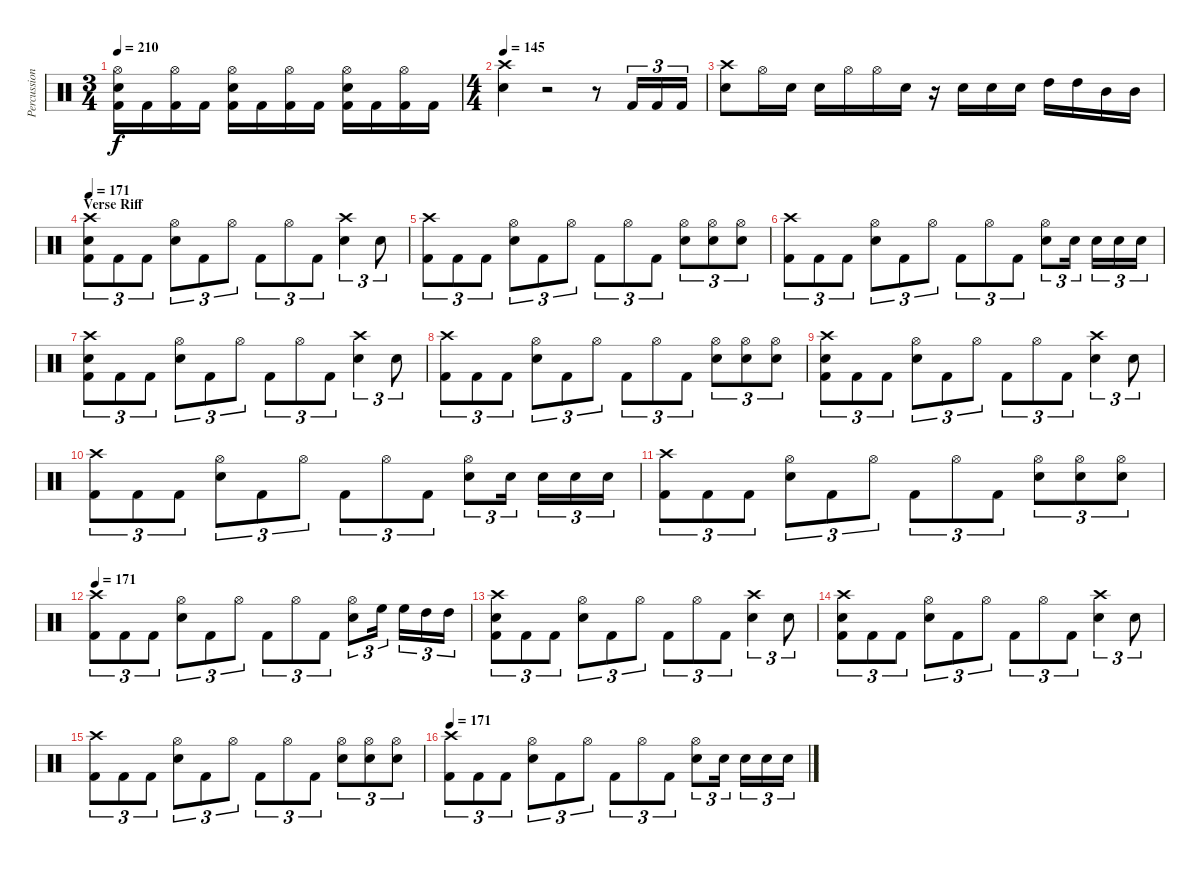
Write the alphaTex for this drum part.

\track ("Percussion" "Percussion") {instrument percussion}
\staff {score}
\articulation defaults
\ts (3 4)
\tempo 210
\clef neutral
\ks c
("Hi-Hat (open)" "Electric Snare (hit)" "Kick (hit) 2").16{dy f} "Kick (hit) 2".16 ("Hi-Hat (open)" "Kick (hit) 2").16 "Kick (hit) 2".16 ("Hi-Hat (open)" "Electric Snare (hit)" "Kick (hit) 2").16 "Kick (hit) 2".16 ("Hi-Hat (open)" "Kick (hit) 2").16 "Kick (hit) 2".16 ("Hi-Hat (open)" "Electric Snare (hit)" "Kick (hit) 2").16 "Kick (hit) 2".16 ("Hi-Hat (open)" "Kick (hit) 2").16 "Kick (hit) 2".16 |
\ts (4 4)
\tempo 145
("Crash high (hit)" "Electric Snare (hit)").4 r.2 r.8 "Kick (hit) 2".16{tu (3 2)} "Kick (hit) 2".16{tu (3 2)} "Kick (hit) 2".16{tu (3 2)} |
("Crash high (hit)" "Electric Snare (hit)").8 "Hi-Hat (open)".16 "Electric Snare (hit)".16 "Electric Snare (hit)".16 "Hi-Hat (open)".16 "Hi-Hat (open)".16 "Electric Snare (hit)".16 r.16 "Electric Snare (hit)".16 "Electric Snare (hit)".16 "Electric Snare (hit)".16 "High Tom (hit)".16 "High Tom (hit)".16 "Mid Tom (hit)".16 "Mid Tom (hit)".16 |
\section ("" "Verse Riff")
\tempo 171
("Crash high (hit)" "Electric Snare (hit)" "Kick (hit) 2").8{tu (3 2)} "Kick (hit) 2".8{tu (3 2)} "Kick (hit) 2".8{tu (3 2)} ("Hi-Hat (open)" "Electric Snare (hit)").8{tu (3 2)} "Kick (hit) 2".8{tu (3 2)} "Hi-Hat (open)".8{tu (3 2)} "Kick (hit) 2".8{tu (3 2)} "Hi-Hat (open)".8{tu (3 2)} "Kick (hit) 2".8{tu (3 2)} ("Crash high (hit)" "Electric Snare (hit)").4{tu (3 2)} "Electric Snare (hit)".8{tu (3 2)} |
("Crash high (hit)" "Kick (hit) 2").8{tu (3 2)} "Kick (hit) 2".8{tu (3 2)} "Kick (hit) 2".8{tu (3 2)} ("Hi-Hat (open)" "Electric Snare (hit)").8{tu (3 2)} "Kick (hit) 2".8{tu (3 2)} "Hi-Hat (open)".8{tu (3 2)} "Kick (hit) 2".8{tu (3 2)} "Hi-Hat (open)".8{tu (3 2)} "Kick (hit) 2".8{tu (3 2)} ("Hi-Hat (open)" "Electric Snare (hit)").8{tu (3 2)} ("Hi-Hat (open)" "Electric Snare (hit)").8{tu (3 2)} ("Hi-Hat (open)" "Electric Snare (hit)").8{tu (3 2)} |
("Crash high (hit)" "Kick (hit) 2").8{tu (3 2)} "Kick (hit) 2".8{tu (3 2)} "Kick (hit) 2".8{tu (3 2)} ("Hi-Hat (open)" "Electric Snare (hit)").8{tu (3 2)} "Kick (hit) 2".8{tu (3 2)} "Hi-Hat (open)".8{tu (3 2)} "Kick (hit) 2".8{tu (3 2)} "Hi-Hat (open)".8{tu (3 2)} "Kick (hit) 2".8{tu (3 2)} ("Hi-Hat (open)" "Electric Snare (hit)").8{tu (3 2)} "Electric Snare (hit)".16{tu (3 2)} "Electric Snare (hit)".16{tu (3 2)} "Electric Snare (hit)".16{tu (3 2)} "Electric Snare (hit)".16{tu (3 2)} |
("Crash high (hit)" "Electric Snare (hit)" "Kick (hit) 2").8{tu (3 2)} "Kick (hit) 2".8{tu (3 2)} "Kick (hit) 2".8{tu (3 2)} ("Hi-Hat (open)" "Electric Snare (hit)").8{tu (3 2)} "Kick (hit) 2".8{tu (3 2)} "Hi-Hat (open)".8{tu (3 2)} "Kick (hit) 2".8{tu (3 2)} "Hi-Hat (open)".8{tu (3 2)} "Kick (hit) 2".8{tu (3 2)} ("Crash high (hit)" "Electric Snare (hit)").4{tu (3 2)} "Electric Snare (hit)".8{tu (3 2)} |
("Crash high (hit)" "Kick (hit) 2").8{tu (3 2)} "Kick (hit) 2".8{tu (3 2)} "Kick (hit) 2".8{tu (3 2)} ("Hi-Hat (open)" "Electric Snare (hit)").8{tu (3 2)} "Kick (hit) 2".8{tu (3 2)} "Hi-Hat (open)".8{tu (3 2)} "Kick (hit) 2".8{tu (3 2)} "Hi-Hat (open)".8{tu (3 2)} "Kick (hit) 2".8{tu (3 2)} ("Hi-Hat (open)" "Electric Snare (hit)").8{tu (3 2)} ("Hi-Hat (open)" "Electric Snare (hit)").8{tu (3 2)} ("Hi-Hat (open)" "Electric Snare (hit)").8{tu (3 2)} |
("Crash high (hit)" "Electric Snare (hit)" "Kick (hit) 2").8{tu (3 2)} "Kick (hit) 2".8{tu (3 2)} "Kick (hit) 2".8{tu (3 2)} ("Hi-Hat (open)" "Electric Snare (hit)").8{tu (3 2)} "Kick (hit) 2".8{tu (3 2)} "Hi-Hat (open)".8{tu (3 2)} "Kick (hit) 2".8{tu (3 2)} "Hi-Hat (open)".8{tu (3 2)} "Kick (hit) 2".8{tu (3 2)} ("Crash high (hit)" "Electric Snare (hit)").4{tu (3 2)} "Electric Snare (hit)".8{tu (3 2)} |
("Crash high (hit)" "Kick (hit) 2").8{tu (3 2)} "Kick (hit) 2".8{tu (3 2)} "Kick (hit) 2".8{tu (3 2)} ("Hi-Hat (open)" "Electric Snare (hit)").8{tu (3 2)} "Kick (hit) 2".8{tu (3 2)} "Hi-Hat (open)".8{tu (3 2)} "Kick (hit) 2".8{tu (3 2)} "Hi-Hat (open)".8{tu (3 2)} "Kick (hit) 2".8{tu (3 2)} ("Hi-Hat (open)" "Electric Snare (hit)").8{tu (3 2)} "Electric Snare (hit)".16{tu (3 2)} "Electric Snare (hit)".16{tu (3 2)} "Electric Snare (hit)".16{tu (3 2)} "Electric Snare (hit)".16{tu (3 2)} |
("Crash high (hit)" "Kick (hit) 2").8{tu (3 2)} "Kick (hit) 2".8{tu (3 2)} "Kick (hit) 2".8{tu (3 2)} ("Hi-Hat (open)" "Electric Snare (hit)").8{tu (3 2)} "Kick (hit) 2".8{tu (3 2)} "Hi-Hat (open)".8{tu (3 2)} "Kick (hit) 2".8{tu (3 2)} "Hi-Hat (open)".8{tu (3 2)} "Kick (hit) 2".8{tu (3 2)} ("Hi-Hat (open)" "Electric Snare (hit)").8{tu (3 2)} ("Hi-Hat (open)" "Electric Snare (hit)").8{tu (3 2)} ("Hi-Hat (open)" "Electric Snare (hit)").8{tu (3 2)} |
\tempo 171
("Crash high (hit)" "Kick (hit) 2").8{tu (3 2)} "Kick (hit) 2".8{tu (3 2)} "Kick (hit) 2".8{tu (3 2)} ("Hi-Hat (open)" "Electric Snare (hit)").8{tu (3 2)} "Kick (hit) 2".8{tu (3 2)} "Hi-Hat (open)".8{tu (3 2)} "Kick (hit) 2".8{tu (3 2)} "Hi-Hat (open)".8{tu (3 2)} "Kick (hit) 2".8{tu (3 2)} ("Hi-Hat (open)" "Electric Snare (hit)").8{tu (3 2)} "High Floor Tom (hit)".16{tu (3 2)} "High Floor Tom (hit)".16{tu (3 2)} "High Tom (hit)".16{tu (3 2)} "High Tom (hit)".16{tu (3 2)} |
("Crash high (hit)" "Electric Snare (hit)" "Kick (hit) 2").8{tu (3 2)} "Kick (hit) 2".8{tu (3 2)} "Kick (hit) 2".8{tu (3 2)} ("Hi-Hat (open)" "Electric Snare (hit)").8{tu (3 2)} "Kick (hit) 2".8{tu (3 2)} "Hi-Hat (open)".8{tu (3 2)} "Kick (hit) 2".8{tu (3 2)} "Hi-Hat (open)".8{tu (3 2)} "Kick (hit) 2".8{tu (3 2)} ("Crash high (hit)" "Electric Snare (hit)").4{tu (3 2)} "Electric Snare (hit)".8{tu (3 2)} |
("Crash high (hit)" "Electric Snare (hit)" "Kick (hit) 2").8{tu (3 2)} "Kick (hit) 2".8{tu (3 2)} "Kick (hit) 2".8{tu (3 2)} ("Hi-Hat (open)" "Electric Snare (hit)").8{tu (3 2)} "Kick (hit) 2".8{tu (3 2)} "Hi-Hat (open)".8{tu (3 2)} "Kick (hit) 2".8{tu (3 2)} "Hi-Hat (open)".8{tu (3 2)} "Kick (hit) 2".8{tu (3 2)} ("Crash high (hit)" "Electric Snare (hit)").4{tu (3 2)} "Electric Snare (hit)".8{tu (3 2)} |
("Crash high (hit)" "Kick (hit) 2").8{tu (3 2)} "Kick (hit) 2".8{tu (3 2)} "Kick (hit) 2".8{tu (3 2)} ("Hi-Hat (open)" "Electric Snare (hit)").8{tu (3 2)} "Kick (hit) 2".8{tu (3 2)} "Hi-Hat (open)".8{tu (3 2)} "Kick (hit) 2".8{tu (3 2)} "Hi-Hat (open)".8{tu (3 2)} "Kick (hit) 2".8{tu (3 2)} ("Hi-Hat (open)" "Electric Snare (hit)").8{tu (3 2)} ("Hi-Hat (open)" "Electric Snare (hit)").8{tu (3 2)} ("Hi-Hat (open)" "Electric Snare (hit)").8{tu (3 2)} |
\tempo 171
("Crash high (hit)" "Kick (hit) 2").8{tu (3 2)} "Kick (hit) 2".8{tu (3 2)} "Kick (hit) 2".8{tu (3 2)} ("Hi-Hat (open)" "Electric Snare (hit)").8{tu (3 2)} "Kick (hit) 2".8{tu (3 2)} "Hi-Hat (open)".8{tu (3 2)} "Kick (hit) 2".8{tu (3 2)} "Hi-Hat (open)".8{tu (3 2)} "Kick (hit) 2".8{tu (3 2)} ("Hi-Hat (open)" "Electric Snare (hit)").8{tu (3 2)} "Electric Snare (hit)".16{tu (3 2)} "Electric Snare (hit)".16{tu (3 2)} "Electric Snare (hit)".16{tu (3 2)} "Electric Snare (hit)".16{tu (3 2)}
